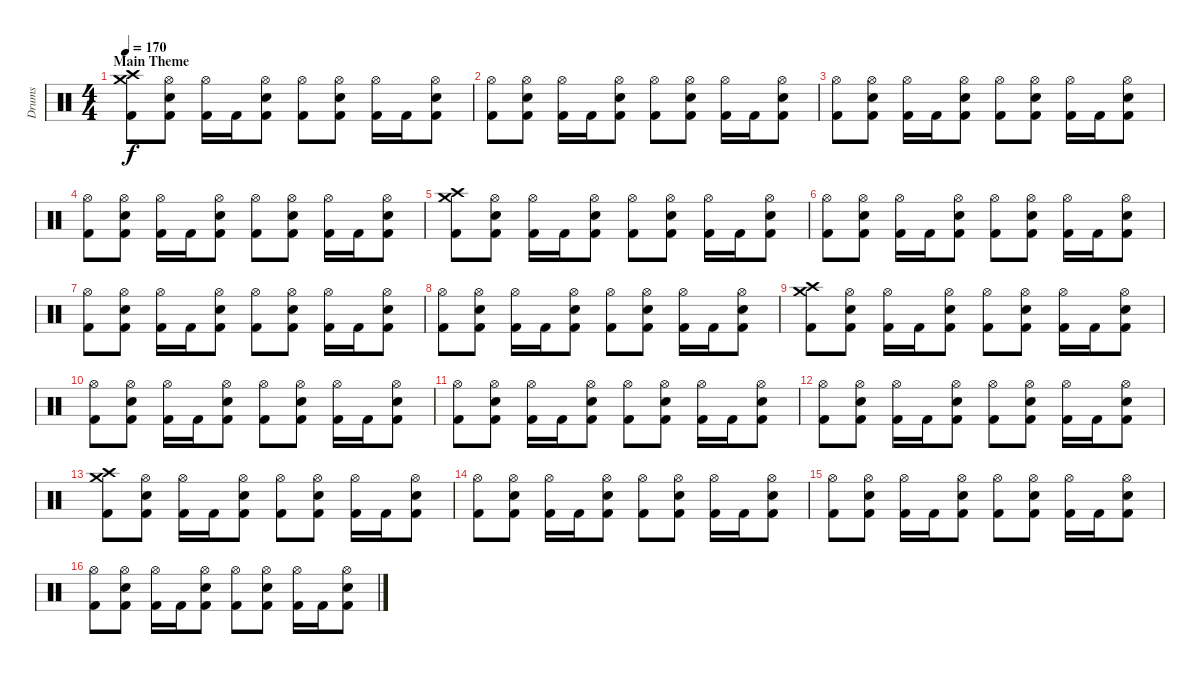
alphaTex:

\track ("Drums" "Drums") {instrument percussion}
\staff {score}
\articulation defaults
\ts (4 4)
\section ("" "Main Theme")
\tempo 170
\clef neutral
\ks c
("Crash high (hit)" "Crash medium (hit)" "Kick (hit) 2").8{dy f} ("Hi-Hat (open)" "Snare (hit) 2" "Kick (hit) 2").8 ("Hi-Hat (open)" "Kick (hit) 2").16 "Kick (hit) 2".16 ("Hi-Hat (open)" "Snare (hit) 2" "Kick (hit) 2").8 ("Hi-Hat (open)" "Kick (hit) 2").8 ("Hi-Hat (open)" "Snare (hit) 2" "Kick (hit) 2").8 ("Hi-Hat (open)" "Kick (hit) 2").16 "Kick (hit) 2".16 ("Hi-Hat (open)" "Snare (hit) 2" "Kick (hit) 2").8 |
("Hi-Hat (open)" "Kick (hit) 2").8 ("Hi-Hat (open)" "Snare (hit) 2" "Kick (hit) 2").8 ("Hi-Hat (open)" "Kick (hit) 2").16 "Kick (hit) 2".16 ("Hi-Hat (open)" "Snare (hit) 2" "Kick (hit) 2").8 ("Hi-Hat (open)" "Kick (hit) 2").8 ("Hi-Hat (open)" "Snare (hit) 2" "Kick (hit) 2").8 ("Hi-Hat (open)" "Kick (hit) 2").16 "Kick (hit) 2".16 ("Hi-Hat (open)" "Snare (hit) 2" "Kick (hit) 2").8 |
("Hi-Hat (open)" "Kick (hit) 2").8 ("Hi-Hat (open)" "Snare (hit) 2" "Kick (hit) 2").8 ("Hi-Hat (open)" "Kick (hit) 2").16 "Kick (hit) 2".16 ("Hi-Hat (open)" "Snare (hit) 2" "Kick (hit) 2").8 ("Hi-Hat (open)" "Kick (hit) 2").8 ("Hi-Hat (open)" "Snare (hit) 2" "Kick (hit) 2").8 ("Hi-Hat (open)" "Kick (hit) 2").16 "Kick (hit) 2".16 ("Hi-Hat (open)" "Snare (hit) 2" "Kick (hit) 2").8 |
("Hi-Hat (open)" "Kick (hit) 2").8 ("Hi-Hat (open)" "Snare (hit) 2" "Kick (hit) 2").8 ("Hi-Hat (open)" "Kick (hit) 2").16 "Kick (hit) 2".16 ("Hi-Hat (open)" "Snare (hit) 2" "Kick (hit) 2").8 ("Hi-Hat (open)" "Kick (hit) 2").8 ("Hi-Hat (open)" "Snare (hit) 2" "Kick (hit) 2").8 ("Hi-Hat (open)" "Kick (hit) 2").16 "Kick (hit) 2".16 ("Hi-Hat (open)" "Snare (hit) 2" "Kick (hit) 2").8 |
("Crash high (hit)" "Crash medium (hit)" "Kick (hit) 2").8 ("Hi-Hat (open)" "Snare (hit) 2" "Kick (hit) 2").8 ("Hi-Hat (open)" "Kick (hit) 2").16 "Kick (hit) 2".16 ("Hi-Hat (open)" "Snare (hit) 2" "Kick (hit) 2").8 ("Hi-Hat (open)" "Kick (hit) 2").8 ("Hi-Hat (open)" "Snare (hit) 2" "Kick (hit) 2").8 ("Hi-Hat (open)" "Kick (hit) 2").16 "Kick (hit) 2".16 ("Hi-Hat (open)" "Snare (hit) 2" "Kick (hit) 2").8 |
("Hi-Hat (open)" "Kick (hit) 2").8 ("Hi-Hat (open)" "Snare (hit) 2" "Kick (hit) 2").8 ("Hi-Hat (open)" "Kick (hit) 2").16 "Kick (hit) 2".16 ("Hi-Hat (open)" "Snare (hit) 2" "Kick (hit) 2").8 ("Hi-Hat (open)" "Kick (hit) 2").8 ("Hi-Hat (open)" "Snare (hit) 2" "Kick (hit) 2").8 ("Hi-Hat (open)" "Kick (hit) 2").16 "Kick (hit) 2".16 ("Hi-Hat (open)" "Snare (hit) 2" "Kick (hit) 2").8 |
("Hi-Hat (open)" "Kick (hit) 2").8 ("Hi-Hat (open)" "Snare (hit) 2" "Kick (hit) 2").8 ("Hi-Hat (open)" "Kick (hit) 2").16 "Kick (hit) 2".16 ("Hi-Hat (open)" "Snare (hit) 2" "Kick (hit) 2").8 ("Hi-Hat (open)" "Kick (hit) 2").8 ("Hi-Hat (open)" "Snare (hit) 2" "Kick (hit) 2").8 ("Hi-Hat (open)" "Kick (hit) 2").16 "Kick (hit) 2".16 ("Hi-Hat (open)" "Snare (hit) 2" "Kick (hit) 2").8 |
("Hi-Hat (open)" "Kick (hit) 2").8 ("Hi-Hat (open)" "Snare (hit) 2" "Kick (hit) 2").8 ("Hi-Hat (open)" "Kick (hit) 2").16 "Kick (hit) 2".16 ("Hi-Hat (open)" "Snare (hit) 2" "Kick (hit) 2").8 ("Hi-Hat (open)" "Kick (hit) 2").8 ("Hi-Hat (open)" "Snare (hit) 2" "Kick (hit) 2").8 ("Hi-Hat (open)" "Kick (hit) 2").16 "Kick (hit) 2".16 ("Hi-Hat (open)" "Snare (hit) 2" "Kick (hit) 2").8 |
("Crash high (hit)" "Crash medium (hit)" "Kick (hit) 2").8 ("Hi-Hat (open)" "Snare (hit) 2" "Kick (hit) 2").8 ("Hi-Hat (open)" "Kick (hit) 2").16 "Kick (hit) 2".16 ("Hi-Hat (open)" "Snare (hit) 2" "Kick (hit) 2").8 ("Hi-Hat (open)" "Kick (hit) 2").8 ("Hi-Hat (open)" "Snare (hit) 2" "Kick (hit) 2").8 ("Hi-Hat (open)" "Kick (hit) 2").16 "Kick (hit) 2".16 ("Hi-Hat (open)" "Snare (hit) 2" "Kick (hit) 2").8 |
("Hi-Hat (open)" "Kick (hit) 2").8 ("Hi-Hat (open)" "Snare (hit) 2" "Kick (hit) 2").8 ("Hi-Hat (open)" "Kick (hit) 2").16 "Kick (hit) 2".16 ("Hi-Hat (open)" "Snare (hit) 2" "Kick (hit) 2").8 ("Hi-Hat (open)" "Kick (hit) 2").8 ("Hi-Hat (open)" "Snare (hit) 2" "Kick (hit) 2").8 ("Hi-Hat (open)" "Kick (hit) 2").16 "Kick (hit) 2".16 ("Hi-Hat (open)" "Snare (hit) 2" "Kick (hit) 2").8 |
("Hi-Hat (open)" "Kick (hit) 2").8 ("Hi-Hat (open)" "Snare (hit) 2" "Kick (hit) 2").8 ("Hi-Hat (open)" "Kick (hit) 2").16 "Kick (hit) 2".16 ("Hi-Hat (open)" "Snare (hit) 2" "Kick (hit) 2").8 ("Hi-Hat (open)" "Kick (hit) 2").8 ("Hi-Hat (open)" "Snare (hit) 2" "Kick (hit) 2").8 ("Hi-Hat (open)" "Kick (hit) 2").16 "Kick (hit) 2".16 ("Hi-Hat (open)" "Snare (hit) 2" "Kick (hit) 2").8 |
("Hi-Hat (open)" "Kick (hit) 2").8 ("Hi-Hat (open)" "Snare (hit) 2" "Kick (hit) 2").8 ("Hi-Hat (open)" "Kick (hit) 2").16 "Kick (hit) 2".16 ("Hi-Hat (open)" "Snare (hit) 2" "Kick (hit) 2").8 ("Hi-Hat (open)" "Kick (hit) 2").8 ("Hi-Hat (open)" "Snare (hit) 2" "Kick (hit) 2").8 ("Hi-Hat (open)" "Kick (hit) 2").16 "Kick (hit) 2".16 ("Hi-Hat (open)" "Snare (hit) 2" "Kick (hit) 2").8 |
("Crash high (hit)" "Crash medium (hit)" "Kick (hit) 2").8 ("Hi-Hat (open)" "Snare (hit) 2" "Kick (hit) 2").8 ("Hi-Hat (open)" "Kick (hit) 2").16 "Kick (hit) 2".16 ("Hi-Hat (open)" "Snare (hit) 2" "Kick (hit) 2").8 ("Hi-Hat (open)" "Kick (hit) 2").8 ("Hi-Hat (open)" "Snare (hit) 2" "Kick (hit) 2").8 ("Hi-Hat (open)" "Kick (hit) 2").16 "Kick (hit) 2".16 ("Hi-Hat (open)" "Snare (hit) 2" "Kick (hit) 2").8 |
("Hi-Hat (open)" "Kick (hit) 2").8 ("Hi-Hat (open)" "Snare (hit) 2" "Kick (hit) 2").8 ("Hi-Hat (open)" "Kick (hit) 2").16 "Kick (hit) 2".16 ("Hi-Hat (open)" "Snare (hit) 2" "Kick (hit) 2").8 ("Hi-Hat (open)" "Kick (hit) 2").8 ("Hi-Hat (open)" "Snare (hit) 2" "Kick (hit) 2").8 ("Hi-Hat (open)" "Kick (hit) 2").16 "Kick (hit) 2".16 ("Hi-Hat (open)" "Snare (hit) 2" "Kick (hit) 2").8 |
("Hi-Hat (open)" "Kick (hit) 2").8 ("Hi-Hat (open)" "Snare (hit) 2" "Kick (hit) 2").8 ("Hi-Hat (open)" "Kick (hit) 2").16 "Kick (hit) 2".16 ("Hi-Hat (open)" "Snare (hit) 2" "Kick (hit) 2").8 ("Hi-Hat (open)" "Kick (hit) 2").8 ("Hi-Hat (open)" "Snare (hit) 2" "Kick (hit) 2").8 ("Hi-Hat (open)" "Kick (hit) 2").16 "Kick (hit) 2".16 ("Hi-Hat (open)" "Snare (hit) 2" "Kick (hit) 2").8 |
("Hi-Hat (open)" "Kick (hit) 2").8 ("Hi-Hat (open)" "Snare (hit) 2" "Kick (hit) 2").8 ("Hi-Hat (open)" "Kick (hit) 2").16 "Kick (hit) 2".16 ("Hi-Hat (open)" "Snare (hit) 2" "Kick (hit) 2").8 ("Hi-Hat (open)" "Kick (hit) 2").8 ("Hi-Hat (open)" "Snare (hit) 2" "Kick (hit) 2").8 ("Hi-Hat (open)" "Kick (hit) 2").16 "Kick (hit) 2".16 ("Hi-Hat (open)" "Snare (hit) 2" "Kick (hit) 2").8
